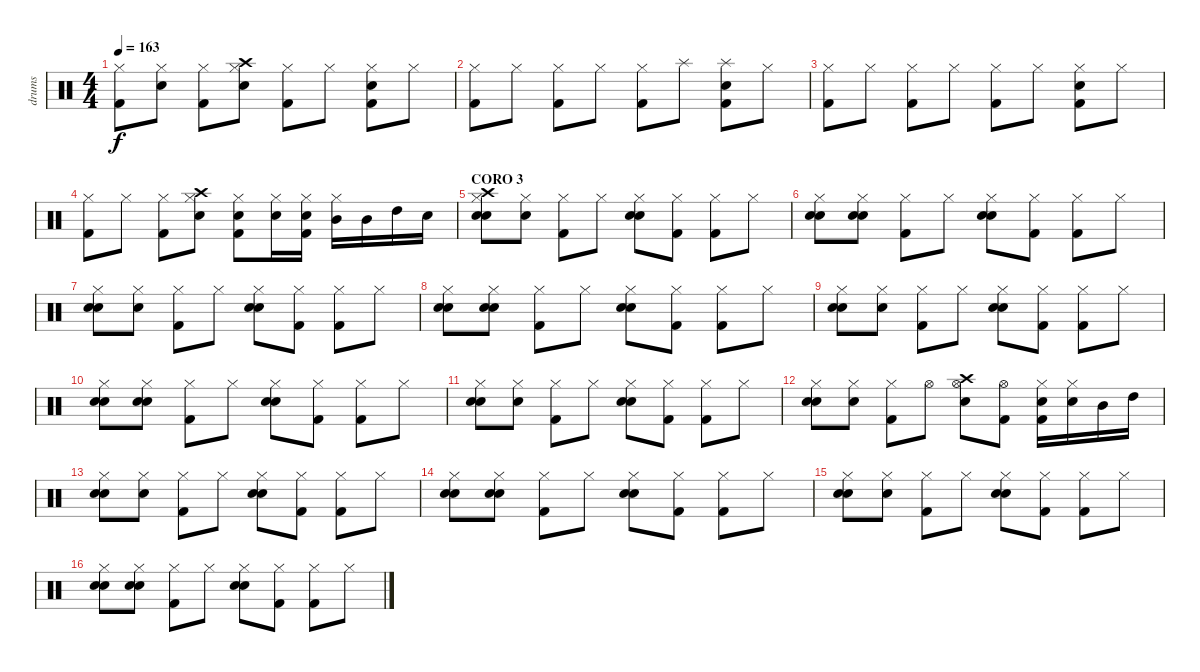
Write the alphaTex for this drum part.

\track ("drums" "drums") {instrument percussion}
\staff {score}
\articulation defaults
\ts (4 4)
\tempo 163
\clef neutral
\ks c
("Hi-Hat (closed)" "Kick (hit) 2").8{dy f} ("Hi-Hat (closed)" "Electric Snare (hit)").8 ("Hi-Hat (closed)" "Kick (hit) 2").8 ("Crash high (hit)" "Hi-Hat (closed)" "Electric Snare (hit)").8 ("Hi-Hat (closed)" "Kick (hit) 2").8 "Hi-Hat (closed)".8 ("Hi-Hat (closed)" "Electric Snare (hit)" "Kick (hit) 2").8 "Hi-Hat (closed)".8 |
("Hi-Hat (closed)" "Kick (hit) 2").8 "Hi-Hat (closed)".8 ("Hi-Hat (closed)" "Kick (hit) 2").8 "Hi-Hat (closed)".8 ("Hi-Hat (closed)" "Kick (hit) 2").8 "Splash (hit)".8 ("Splash (hit)" "Electric Snare (hit)" "Kick (hit) 2").8 "Hi-Hat (closed)".8 |
("Hi-Hat (closed)" "Kick (hit) 2").8 "Hi-Hat (closed)".8 ("Hi-Hat (closed)" "Kick (hit) 2").8 "Hi-Hat (closed)".8 ("Hi-Hat (closed)" "Kick (hit) 2").8 "Hi-Hat (closed)".8 ("Hi-Hat (closed)" "Electric Snare (hit)" "Kick (hit) 2").8 "Hi-Hat (closed)".8 |
("Hi-Hat (closed)" "Kick (hit) 2").8 "Hi-Hat (closed)".8 ("Hi-Hat (closed)" "Kick (hit) 2").8 ("Crash high (hit)" "Hi-Hat (closed)" "Electric Snare (hit)").8 ("Hi-Hat (closed)" "Electric Snare (hit)" "Kick (hit) 2").8 ("Hi-Hat (closed)" "Electric Snare (hit)").16 ("Hi-Hat (closed)" "Electric Snare (hit)" "Kick (hit) 2").16 ("Hi-Hat (closed)" "Mid Tom (hit)").16 "Mid Tom (hit)".16 "High Tom (hit)".16 "Electric Snare (hit)".16 |
\section ("" "CORO 3")
("Hand Clap (hit)" "Hi-Hat (closed)" "Electric Snare (hit)" "Crash high (hit)").8 ("Hand Clap (hit)" "Hi-Hat (closed)").8 ("Hi-Hat (closed)" "Kick (hit) 2").8 "Hi-Hat (closed)".8 ("Hand Clap (hit)" "Hi-Hat (closed)" "Electric Snare (hit)").8 ("Hi-Hat (closed)" "Kick (hit) 2").8 ("Hi-Hat (closed)" "Kick (hit) 2").8 "Hi-Hat (closed)".8 |
("Hand Clap (hit)" "Hi-Hat (closed)" "Electric Snare (hit)").8 ("Hand Clap (hit)" "Hi-Hat (closed)" "Electric Snare (hit)").8 ("Hi-Hat (closed)" "Kick (hit) 2").8 "Hi-Hat (closed)".8 ("Hand Clap (hit)" "Hi-Hat (closed)" "Electric Snare (hit)").8 ("Hi-Hat (closed)" "Kick (hit) 2").8 ("Hi-Hat (closed)" "Kick (hit) 2").8 "Hi-Hat (closed)".8 |
("Hand Clap (hit)" "Hi-Hat (closed)" "Electric Snare (hit)").8 ("Hand Clap (hit)" "Hi-Hat (closed)").8 ("Hi-Hat (closed)" "Kick (hit) 2").8 "Hi-Hat (closed)".8 ("Hand Clap (hit)" "Hi-Hat (closed)" "Electric Snare (hit)").8 ("Hi-Hat (closed)" "Kick (hit) 2").8 ("Hi-Hat (closed)" "Kick (hit) 2").8 "Hi-Hat (closed)".8 |
("Hand Clap (hit)" "Hi-Hat (closed)" "Electric Snare (hit)").8 ("Hand Clap (hit)" "Hi-Hat (closed)" "Electric Snare (hit)").8 ("Hi-Hat (closed)" "Kick (hit) 2").8 "Hi-Hat (closed)".8 ("Hand Clap (hit)" "Hi-Hat (closed)" "Electric Snare (hit)").8 ("Hi-Hat (closed)" "Kick (hit) 2").8 ("Hi-Hat (closed)" "Kick (hit) 2").8 "Hi-Hat (closed)".8 |
("Hand Clap (hit)" "Hi-Hat (closed)" "Electric Snare (hit)").8 ("Hand Clap (hit)" "Hi-Hat (closed)").8 ("Hi-Hat (closed)" "Kick (hit) 2").8 "Hi-Hat (closed)".8 ("Hand Clap (hit)" "Hi-Hat (closed)" "Electric Snare (hit)").8 ("Hi-Hat (closed)" "Kick (hit) 2").8 ("Hi-Hat (closed)" "Kick (hit) 2").8 "Hi-Hat (closed)".8 |
("Hand Clap (hit)" "Hi-Hat (closed)" "Electric Snare (hit)").8 ("Hand Clap (hit)" "Hi-Hat (closed)" "Electric Snare (hit)").8 ("Hi-Hat (closed)" "Kick (hit) 2").8 "Hi-Hat (closed)".8 ("Hand Clap (hit)" "Hi-Hat (closed)" "Electric Snare (hit)").8 ("Hi-Hat (closed)" "Kick (hit) 2").8 ("Hi-Hat (closed)" "Kick (hit) 2").8 "Hi-Hat (closed)".8 |
("Hand Clap (hit)" "Hi-Hat (closed)" "Electric Snare (hit)").8 ("Hand Clap (hit)" "Hi-Hat (closed)").8 ("Hi-Hat (closed)" "Kick (hit) 2").8 "Hi-Hat (closed)".8 ("Hand Clap (hit)" "Hi-Hat (closed)" "Electric Snare (hit)").8 ("Hi-Hat (closed)" "Kick (hit) 2").8 ("Hi-Hat (closed)" "Kick (hit) 2").8 "Hi-Hat (closed)".8 |
("Hand Clap (hit)" "Electric Snare (hit)" "Hi-Hat (closed)").8 ("Hand Clap (hit)" "Hi-Hat (closed)").8 ("Hi-Hat (closed)" "Kick (hit) 2").8 "Hi-Hat (open)".8 ("Crash high (hit)" "Electric Snare (hit)" "Hi-Hat (open)").8 ("Hi-Hat (open)" "Kick (hit) 2").8 ("Electric Snare (hit)" "Hi-Hat (closed)" "Kick (hit) 2").16 ("Electric Snare (hit)" "Hi-Hat (closed)").16 "Mid Tom (hit)".16 "High Tom (hit)".16 |
("Hand Clap (hit)" "Hi-Hat (closed)" "Electric Snare (hit)").8 ("Hand Clap (hit)" "Hi-Hat (closed)").8 ("Hi-Hat (closed)" "Kick (hit) 2").8 "Hi-Hat (closed)".8 ("Hand Clap (hit)" "Hi-Hat (closed)" "Electric Snare (hit)").8 ("Hi-Hat (closed)" "Kick (hit) 2").8 ("Hi-Hat (closed)" "Kick (hit) 2").8 "Hi-Hat (closed)".8 |
("Hand Clap (hit)" "Hi-Hat (closed)" "Electric Snare (hit)").8 ("Hand Clap (hit)" "Hi-Hat (closed)" "Electric Snare (hit)").8 ("Hi-Hat (closed)" "Kick (hit) 2").8 "Hi-Hat (closed)".8 ("Hand Clap (hit)" "Hi-Hat (closed)" "Electric Snare (hit)").8 ("Hi-Hat (closed)" "Kick (hit) 2").8 ("Hi-Hat (closed)" "Kick (hit) 2").8 "Hi-Hat (closed)".8 |
("Hand Clap (hit)" "Hi-Hat (closed)" "Electric Snare (hit)").8 ("Hand Clap (hit)" "Hi-Hat (closed)").8 ("Hi-Hat (closed)" "Kick (hit) 2").8 "Hi-Hat (closed)".8 ("Hand Clap (hit)" "Hi-Hat (closed)" "Electric Snare (hit)").8 ("Hi-Hat (closed)" "Kick (hit) 2").8 ("Hi-Hat (closed)" "Kick (hit) 2").8 "Hi-Hat (closed)".8 |
("Hand Clap (hit)" "Hi-Hat (closed)" "Electric Snare (hit)").8 ("Hand Clap (hit)" "Hi-Hat (closed)" "Electric Snare (hit)").8 ("Hi-Hat (closed)" "Kick (hit) 2").8 "Hi-Hat (closed)".8 ("Hand Clap (hit)" "Hi-Hat (closed)" "Electric Snare (hit)").8 ("Hi-Hat (closed)" "Kick (hit) 2").8 ("Hi-Hat (closed)" "Kick (hit) 2").8 "Hi-Hat (closed)".8
